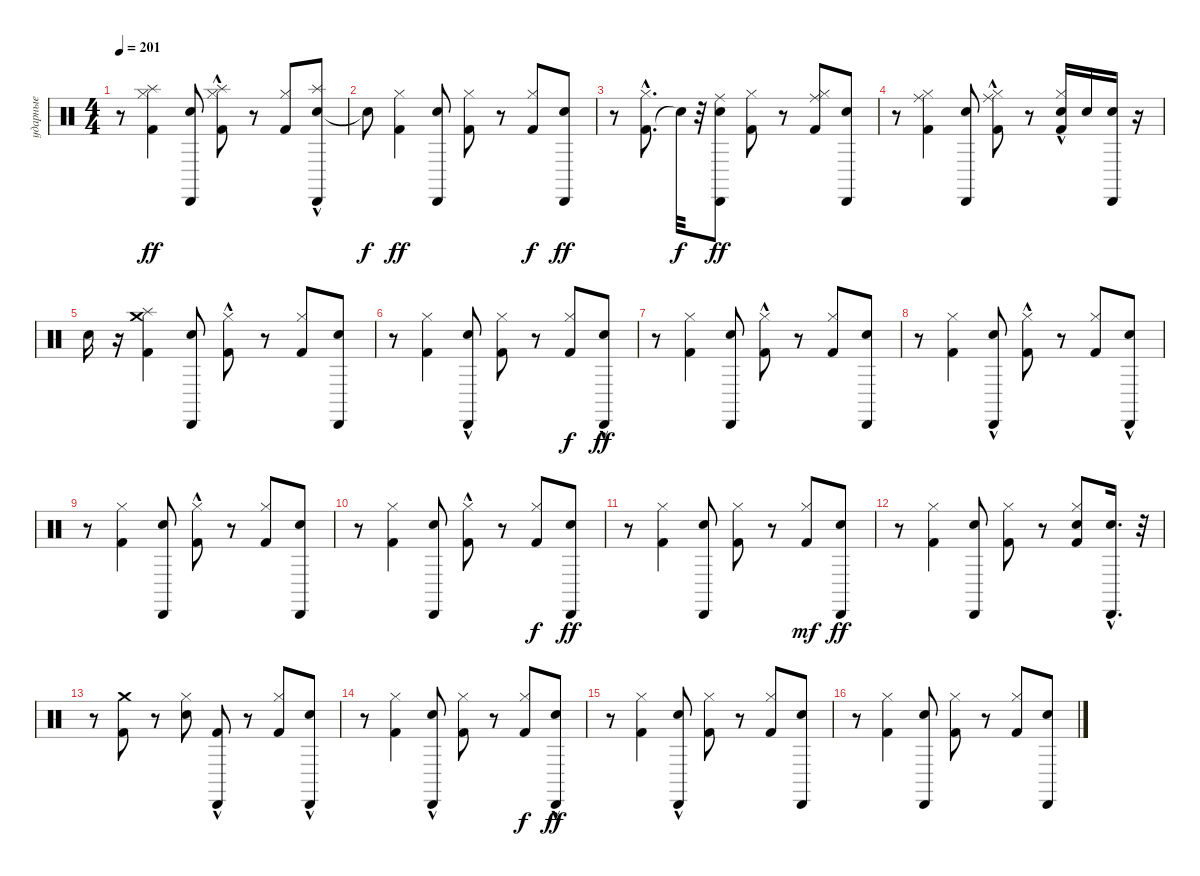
\track ("ударные" "ударные") {instrument percussion}
\staff {score}
\articulation defaults
\ts (4 4)
\tempo 201
\clef neutral
\ks c
r.8{dy ff} ("Kick (hit) 2" "Hi-Hat (closed)" "Splash (hit)").4 ("Electric Snare (hit)" "Cabasa (hit)").8 ("Kick (hit) 2" "Hi-Hat (closed)" "Splash (hit)"{hac}).8 r.8 ("Kick (hit) 2" "Hi-Hat (closed)").8 ("Electric Snare (hit)" "Splash (hit)" "Cabasa (hit)"{hac}).8 |
"Snare (hit)"{t}.8{dy f} ("Kick (hit) 2" "Hi-Hat (closed)").4{dy ff} ("Electric Snare (hit)" "Cabasa (hit)").8 ("Kick (hit) 2" "Hi-Hat (closed)").8 r.8 ("Kick (hit) 2" "Hi-Hat (closed)").8{dy f} ("Electric Snare (hit)" "Cabasa (hit)").8{dy ff} |
r.8 ("Kick (hit) 2" "Hi-Hat (closed)"{hac}).8{d} "Snare (hit)"{t}.32{dy f} r.32 ("Electric Snare (hit)" "Ride (middle)" "Cabasa (hit)").8{dy ff} ("Kick (hit) 2" "Hi-Hat (closed)").8 r.8 ("Kick (hit) 2" "Hi-Hat (closed)" "Ride (middle)").8 ("Electric Snare (hit)" "Cabasa (hit)").8 |
r.8 ("Kick (hit) 2" "Hi-Hat (closed)" "Ride (middle)").4 ("Electric Snare (hit)" "Cabasa (hit)").8 ("Kick (hit) 2" "Hi-Hat (closed)"{hac} "Ride (middle)").8 r.8 ("Kick (hit) 2" "Electric Snare (hit)" "Hi-Hat (closed)"{hac}).16 "Electric Snare (hit)".16 ("Electric Snare (hit)" "Cabasa (hit)").16 r.16 |
"Electric Snare (hit)".16 r.16 ("Splash (hit)" "Kick (hit) 2" "Crash medium (hit)").4 ("Electric Snare (hit)" "Cabasa (hit)").8 ("Kick (hit) 2" "Hi-Hat (closed)"{hac}).8 r.8 ("Kick (hit) 2" "Hi-Hat (closed)").8 ("Electric Snare (hit)" "Cabasa (hit)").8 |
r.8 ("Kick (hit) 2" "Hi-Hat (closed)").4 ("Electric Snare (hit)" "Cabasa (hit)"{hac}).8 ("Kick (hit) 2" "Hi-Hat (closed)").8 r.8 ("Kick (hit) 2" "Hi-Hat (closed)").8{dy f} ("Electric Snare (hit)" "Cabasa (hit)"{hac}).8{dy ff} |
r.8 ("Kick (hit) 2" "Hi-Hat (closed)").4 ("Electric Snare (hit)" "Cabasa (hit)").8 ("Kick (hit) 2" "Hi-Hat (closed)"{hac}).8 r.8 ("Kick (hit) 2" "Hi-Hat (closed)").8 ("Electric Snare (hit)" "Cabasa (hit)").8 |
r.8 ("Kick (hit) 2" "Hi-Hat (closed)").4 ("Electric Snare (hit)" "Cabasa (hit)"{hac}).8 ("Kick (hit) 2" "Hi-Hat (closed)"{hac}).8 r.8 ("Kick (hit) 2" "Hi-Hat (closed)").8 ("Electric Snare (hit)" "Cabasa (hit)"{hac}).8 |
r.8 ("Kick (hit) 2" "Hi-Hat (closed)").4 ("Electric Snare (hit)" "Cabasa (hit)").8 ("Kick (hit) 2" "Hi-Hat (closed)"{hac}).8 r.8 ("Kick (hit) 2" "Hi-Hat (closed)").8 ("Electric Snare (hit)" "Cabasa (hit)").8 |
r.8 ("Kick (hit) 2" "Hi-Hat (closed)").4 ("Electric Snare (hit)" "Cabasa (hit)").8 ("Kick (hit) 2" "Hi-Hat (closed)"{hac}).8 r.8 ("Kick (hit) 2" "Hi-Hat (closed)").8{dy f} ("Electric Snare (hit)" "Cabasa (hit)").8{dy ff} |
r.8 ("Kick (hit) 2" "Hi-Hat (closed)").4 ("Electric Snare (hit)" "Cabasa (hit)").8 ("Kick (hit) 2" "Hi-Hat (closed)").8 r.8 ("Kick (hit) 2" "Hi-Hat (closed)").8{dy mf} ("Electric Snare (hit)" "Cabasa (hit)").8{dy ff} |
r.8 ("Kick (hit) 2" "Hi-Hat (closed)").4 ("Electric Snare (hit)" "Cabasa (hit)").8 ("Kick (hit) 2" "Hi-Hat (closed)").8 r.8 ("Kick (hit) 2" "Electric Snare (hit)" "Hi-Hat (closed)").8 ("Electric Snare (hit)" "Cabasa (hit)"{hac}).16{d} r.32 |
r.8 ("Kick (hit) 2" "Crash medium (hit)").8 r.8 ("Electric Snare (hit)" "Hi-Hat (closed)").8 ("Kick (hit) 2" "Cabasa (hit)"{hac}).8 r.8 ("Kick (hit) 2" "Hi-Hat (closed)").8 ("Electric Snare (hit)" "Cabasa (hit)"{hac}).8 |
r.8 ("Kick (hit) 2" "Hi-Hat (closed)").4 ("Electric Snare (hit)" "Cabasa (hit)"{hac}).8 ("Kick (hit) 2" "Hi-Hat (closed)").8 r.8 ("Kick (hit) 2" "Hi-Hat (closed)").8{dy f} ("Electric Snare (hit)" "Cabasa (hit)"{hac}).8{dy ff} |
r.8 ("Kick (hit) 2" "Hi-Hat (closed)").4 ("Electric Snare (hit)" "Cabasa (hit)"{hac}).8 ("Kick (hit) 2" "Hi-Hat (closed)").8 r.8 ("Kick (hit) 2" "Hi-Hat (closed)").8 ("Electric Snare (hit)" "Cabasa (hit)").8 |
r.8 ("Kick (hit) 2" "Hi-Hat (closed)").4 ("Electric Snare (hit)" "Cabasa (hit)").8 ("Kick (hit) 2" "Hi-Hat (closed)").8 r.8 ("Kick (hit) 2" "Hi-Hat (closed)").8 ("Electric Snare (hit)" "Cabasa (hit)").8
